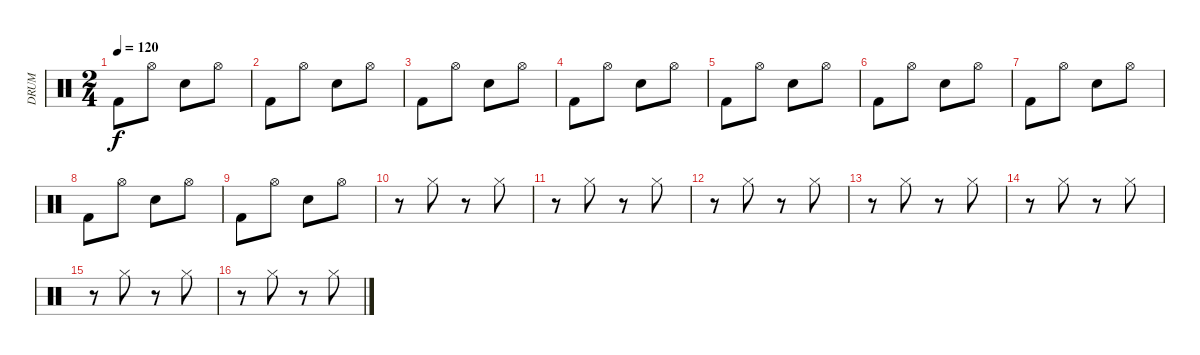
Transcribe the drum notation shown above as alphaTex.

\track ("DRUM" "DRUM") {instrument percussion}
\staff {score}
\articulation defaults
\ts (2 4)
\tempo 120
\clef neutral
\ks c "Kick (hit) 2".8{dy f} "Hi-Hat (open)".8 "Electric Snare (hit)".8 "Hi-Hat (open)".8
|
"Kick (hit) 2".8 "Hi-Hat (open)".8 "Electric Snare (hit)".8 "Hi-Hat (open)".8 |
"Kick (hit) 2".8 "Hi-Hat (open)".8 "Electric Snare (hit)".8 "Hi-Hat (open)".8 |
"Kick (hit) 2".8 "Hi-Hat (open)".8 "Electric Snare (hit)".8 "Hi-Hat (open)".8 |
"Kick (hit) 2".8 "Hi-Hat (open)".8 "Electric Snare (hit)".8 "Hi-Hat (open)".8 |
"Kick (hit) 2".8 "Hi-Hat (open)".8 "Electric Snare (hit)".8 "Hi-Hat (open)".8 |
"Kick (hit) 2".8 "Hi-Hat (open)".8 "Electric Snare (hit)".8 "Hi-Hat (open)".8 |
"Kick (hit) 2".8 "Hi-Hat (open)".8 "Electric Snare (hit)".8 "Hi-Hat (open)".8 |
"Kick (hit) 2".8 "Hi-Hat (open)".8 "Electric Snare (hit)".8 "Hi-Hat (open)".8 |
r.8 "Hi-Hat (closed)".8 r.8 "Hi-Hat (closed)".8 |
r.8 "Hi-Hat (closed)".8 r.8 "Hi-Hat (closed)".8 |
r.8 "Hi-Hat (closed)".8 r.8 "Hi-Hat (closed)".8 |
r.8 "Hi-Hat (closed)".8 r.8 "Hi-Hat (closed)".8 |
r.8 "Hi-Hat (closed)".8 r.8 "Hi-Hat (closed)".8 |
r.8 "Hi-Hat (closed)".8 r.8 "Hi-Hat (closed)".8 |
r.8 "Hi-Hat (closed)".8 r.8 "Hi-Hat (closed)".8
